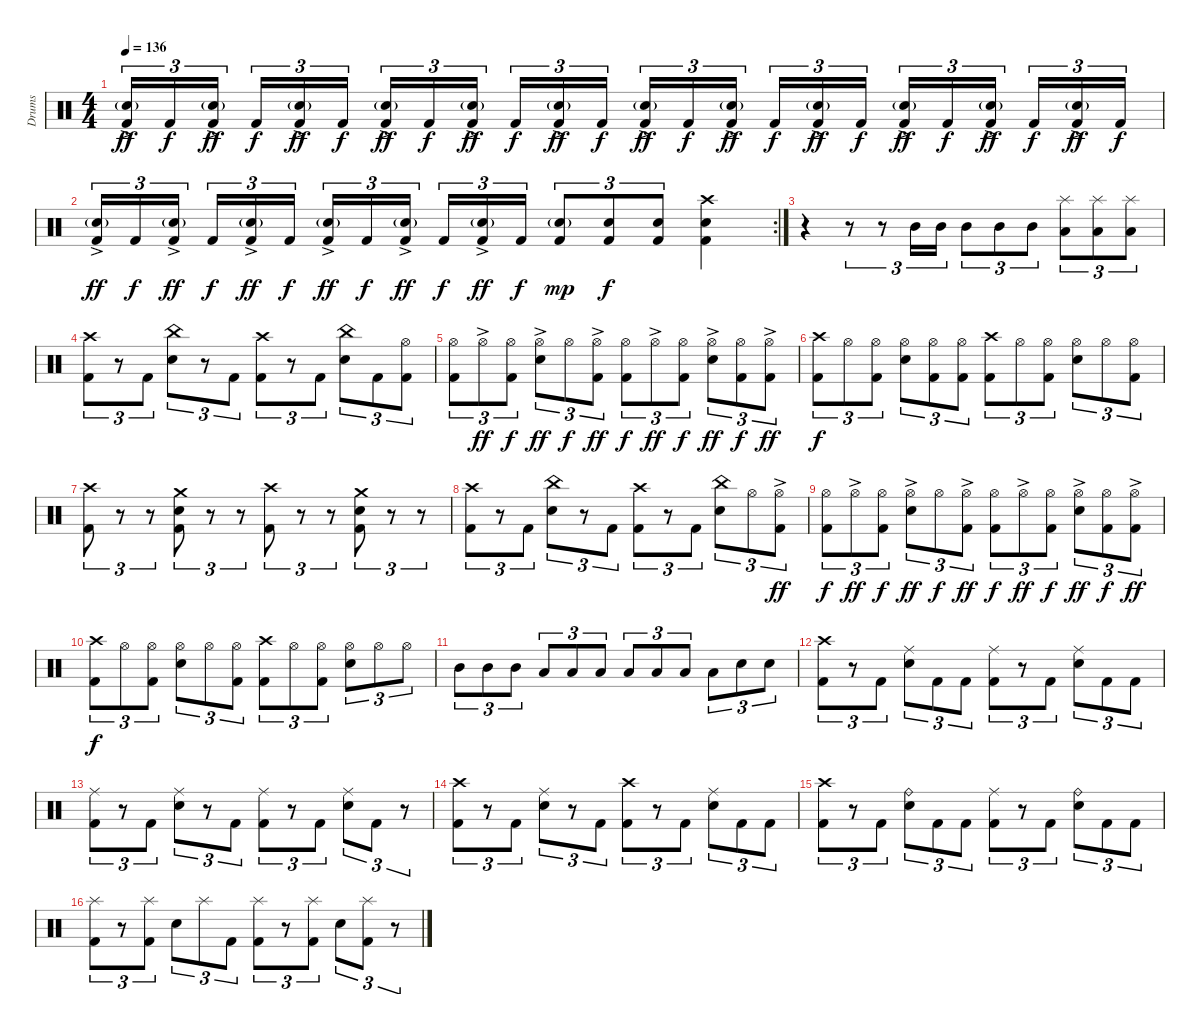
\track ("Drums" "Drums") {instrument percussion}
\staff {score}
\articulation defaults
\ts (4 4)
\tempo 136
\clef neutral
\ks c
("Electric Snare (hit)"{g} "Kick (hit) 2"{ac}).16{tu (3 2) dy ff} "Kick (hit) 2".16{tu (3 2) dy f} ("Electric Snare (hit)"{g} "Kick (hit) 2"{ac}).16{tu (3 2) dy ff beam splitsecondary} "Kick (hit) 2".16{tu (3 2) dy f} ("Electric Snare (hit)"{g} "Kick (hit) 2"{ac}).16{tu (3 2) dy ff} "Kick (hit) 2".16{tu (3 2) dy f} ("Electric Snare (hit)"{g} "Kick (hit) 2"{ac}).16{tu (3 2) dy ff} "Kick (hit) 2".16{tu (3 2) dy f} ("Electric Snare (hit)"{g} "Kick (hit) 2"{ac}).16{tu (3 2) dy ff beam splitsecondary} "Kick (hit) 2".16{tu (3 2) dy f} ("Electric Snare (hit)"{g} "Kick (hit) 2"{ac}).16{tu (3 2) dy ff} "Kick (hit) 2".16{tu (3 2) dy f} ("Electric Snare (hit)"{g} "Kick (hit) 2"{ac}).16{tu (3 2) dy ff} "Kick (hit) 2".16{tu (3 2) dy f} ("Electric Snare (hit)"{g} "Kick (hit) 2"{ac}).16{tu (3 2) dy ff beam splitsecondary} "Kick (hit) 2".16{tu (3 2) dy f} ("Electric Snare (hit)"{g} "Kick (hit) 2"{ac}).16{tu (3 2) dy ff} "Kick (hit) 2".16{tu (3 2) dy f} ("Electric Snare (hit)"{g} "Kick (hit) 2"{ac}).16{tu (3 2) dy ff} "Kick (hit) 2".16{tu (3 2) dy f} ("Electric Snare (hit)"{g} "Kick (hit) 2"{ac}).16{tu (3 2) dy ff beam splitsecondary} "Kick (hit) 2".16{tu (3 2) dy f} ("Electric Snare (hit)"{g} "Kick (hit) 2"{ac}).16{tu (3 2) dy ff} "Kick (hit) 2".16{tu (3 2) dy f} |
\rc 2
("Electric Snare (hit)"{g} "Kick (hit) 2"{ac}).16{tu (3 2) dy ff} "Kick (hit) 2".16{tu (3 2) dy f} ("Electric Snare (hit)"{g} "Kick (hit) 2"{ac}).16{tu (3 2) dy ff beam splitsecondary} "Kick (hit) 2".16{tu (3 2) dy f} ("Electric Snare (hit)"{g} "Kick (hit) 2"{ac}).16{tu (3 2) dy ff} "Kick (hit) 2".16{tu (3 2) dy f} ("Electric Snare (hit)"{g} "Kick (hit) 2"{ac}).16{tu (3 2) dy ff} "Kick (hit) 2".16{tu (3 2) dy f} ("Electric Snare (hit)"{g} "Kick (hit) 2"{ac}).16{tu (3 2) dy ff beam splitsecondary} "Kick (hit) 2".16{tu (3 2) dy f} ("Electric Snare (hit)"{g} "Kick (hit) 2"{ac}).16{tu (3 2) dy ff} "Kick (hit) 2".16{tu (3 2) dy f} ("Electric Snare (hit)"{g} "Kick (hit) 2").8{tu (3 2) dy mp} ("Electric Snare (hit)" "Kick (hit) 2").8{tu (3 2) dy f} ("Electric Snare (hit)" "Kick (hit) 2").8{tu (3 2)} ("Crash high (hit)" "Electric Snare (hit)" "Kick (hit) 2").4 |
r.4 r.8{tu (3 2)} r.8{tu (3 2)} "Mid Tom (hit)".16{tu (3 2)} "Mid Tom (hit)".16{tu (3 2)} "Mid Tom (hit)".8{tu (3 2)} "Mid Tom (hit)".8{tu (3 2)} "Mid Tom (hit)".8{tu (3 2)} ("Splash (hit)" "Low Tom (hit)").8{tu (3 2)} ("Splash (hit)" "Low Tom (hit)").8{tu (3 2)} ("Splash (hit)" "Low Tom (hit)").8{tu (3 2)} |
("Crash high (hit)" "Kick (hit) 2").8{tu (3 2)} r.8{tu (3 2)} "Kick (hit) 2".8{tu (3 2)} ("China (hit)" "Electric Snare (hit)").8{tu (3 2)} r.8{tu (3 2)} "Kick (hit) 2".8{tu (3 2)} ("Crash high (hit)" "Kick (hit) 2").8{tu (3 2)} r.8{tu (3 2)} "Kick (hit) 2".8{tu (3 2)} ("China (hit)" "Electric Snare (hit)").8{tu (3 2)} "Kick (hit) 2".8{tu (3 2)} ("Hi-Hat (open)" "Kick (hit) 2").8{tu (3 2)} |
("Hi-Hat (open)" "Kick (hit) 2").8{tu (3 2)} "Hi-Hat (open)"{ac}.8{tu (3 2) dy ff} ("Hi-Hat (open)" "Kick (hit) 2").8{tu (3 2) dy f} ("Hi-Hat (open)"{ac} "Electric Snare (hit)").8{tu (3 2) dy ff} "Hi-Hat (open)".8{tu (3 2) dy f} ("Hi-Hat (open)"{ac} "Kick (hit) 2").8{tu (3 2) dy ff} ("Hi-Hat (open)" "Kick (hit) 2").8{tu (3 2) dy f} "Hi-Hat (open)"{ac}.8{tu (3 2) dy ff} ("Hi-Hat (open)" "Kick (hit) 2").8{tu (3 2) dy f} ("Hi-Hat (open)"{ac} "Electric Snare (hit)").8{tu (3 2) dy ff} ("Hi-Hat (open)" "Kick (hit) 2").8{tu (3 2) dy f} ("Hi-Hat (open)"{ac} "Kick (hit) 2").8{tu (3 2) dy ff} |
("Crash high (hit)" "Kick (hit) 2").8{tu (3 2) dy f} "Hi-Hat (open)".8{tu (3 2)} ("Hi-Hat (open)" "Kick (hit) 2").8{tu (3 2)} ("Hi-Hat (open)" "Electric Snare (hit)").8{tu (3 2)} ("Hi-Hat (open)" "Kick (hit) 2").8{tu (3 2)} ("Hi-Hat (open)" "Kick (hit) 2").8{tu (3 2)} ("Crash high (hit)" "Kick (hit) 2").8{tu (3 2)} "Hi-Hat (open)".8{tu (3 2)} ("Hi-Hat (open)" "Kick (hit) 2").8{tu (3 2)} ("Hi-Hat (open)" "Electric Snare (hit)").8{tu (3 2)} "Hi-Hat (open)".8{tu (3 2)} ("Hi-Hat (open)" "Kick (hit) 2").8{tu (3 2)} |
("Crash high (hit)" "Kick (hit) 2").8{tu (3 2)} r.8{tu (3 2)} r.8{tu (3 2)} ("Crash medium (hit)" "Electric Snare (hit)" "Kick (hit) 2").8{tu (3 2)} r.8{tu (3 2)} r.8{tu (3 2)} ("Crash high (hit)" "Kick (hit) 2").8{tu (3 2)} r.8{tu (3 2)} r.8{tu (3 2)} ("Crash medium (hit)" "Electric Snare (hit)" "Kick (hit) 2").8{tu (3 2)} r.8{tu (3 2)} r.8{tu (3 2)} |
("Crash high (hit)" "Kick (hit) 2").8{tu (3 2)} r.8{tu (3 2)} "Kick (hit) 2".8{tu (3 2)} ("China (hit)" "Electric Snare (hit)").8{tu (3 2)} r.8{tu (3 2)} "Kick (hit) 2".8{tu (3 2)} ("Crash high (hit)" "Kick (hit) 2").8{tu (3 2)} r.8{tu (3 2)} "Kick (hit) 2".8{tu (3 2)} ("China (hit)" "Electric Snare (hit)").8{tu (3 2)} "Hi-Hat (open)".8{tu (3 2)} ("Hi-Hat (open)"{ac} "Kick (hit) 2").8{tu (3 2) dy ff} |
("Hi-Hat (open)" "Kick (hit) 2").8{tu (3 2) dy f} "Hi-Hat (open)"{ac}.8{tu (3 2) dy ff} ("Hi-Hat (open)" "Kick (hit) 2").8{tu (3 2) dy f} ("Hi-Hat (open)"{ac} "Electric Snare (hit)").8{tu (3 2) dy ff} "Hi-Hat (open)".8{tu (3 2) dy f} ("Hi-Hat (open)"{ac} "Kick (hit) 2").8{tu (3 2) dy ff} ("Hi-Hat (open)" "Kick (hit) 2").8{tu (3 2) dy f} "Hi-Hat (open)"{ac}.8{tu (3 2) dy ff} ("Hi-Hat (open)" "Kick (hit) 2").8{tu (3 2) dy f} ("Hi-Hat (open)"{ac} "Electric Snare (hit)").8{tu (3 2) dy ff} ("Hi-Hat (open)" "Kick (hit) 2").8{tu (3 2) dy f} ("Hi-Hat (open)"{ac} "Kick (hit) 2").8{tu (3 2) dy ff} |
("Crash high (hit)" "Kick (hit) 2").8{tu (3 2) dy f} "Hi-Hat (open)".8{tu (3 2)} ("Hi-Hat (open)" "Kick (hit) 2").8{tu (3 2)} ("Hi-Hat (open)" "Electric Snare (hit)").8{tu (3 2)} "Hi-Hat (open)".8{tu (3 2)} ("Hi-Hat (open)" "Kick (hit) 2").8{tu (3 2)} ("Crash high (hit)" "Kick (hit) 2").8{tu (3 2)} "Hi-Hat (open)".8{tu (3 2)} ("Hi-Hat (open)" "Kick (hit) 2").8{tu (3 2)} ("Hi-Hat (open)" "Electric Snare (hit)").8{tu (3 2)} "Hi-Hat (open)".8{tu (3 2)} "Hi-Hat (open)".8{tu (3 2)} |
"Mid Tom (hit)".8{tu (3 2)} "Mid Tom (hit)".8{tu (3 2)} "Mid Tom (hit)".8{tu (3 2)} "Low Tom (hit)".8{tu (3 2)} "Low Tom (hit)".8{tu (3 2)} "Low Tom (hit)".8{tu (3 2)} "Low Floor Tom (hit)".8{tu (3 2)} "Low Floor Tom (hit)".8{tu (3 2)} "Low Floor Tom (hit)".8{tu (3 2)} "Low Floor Tom (hit)".8{tu (3 2)} "Electric Snare (hit)".8{tu (3 2)} "Electric Snare (hit)".8{tu (3 2)} |
("Crash high (hit)" "Kick (hit) 2").8{tu (3 2)} r.8{tu (3 2)} "Kick (hit) 2".8{tu (3 2)} ("Ride (middle)" "Electric Snare (hit)").8{tu (3 2)} "Kick (hit) 2".8{tu (3 2)} "Kick (hit) 2".8{tu (3 2)} ("Ride (middle)" "Kick (hit) 2").8{tu (3 2)} r.8{tu (3 2)} "Kick (hit) 2".8{tu (3 2)} ("Ride (middle)" "Electric Snare (hit)").8{tu (3 2)} "Kick (hit) 2".8{tu (3 2)} "Kick (hit) 2".8{tu (3 2)} |
("Ride (middle)" "Kick (hit) 2").8{tu (3 2)} r.8{tu (3 2)} "Kick (hit) 2".8{tu (3 2)} ("Ride (middle)" "Electric Snare (hit)").8{tu (3 2)} r.8{tu (3 2)} "Kick (hit) 2".8{tu (3 2)} ("Ride (middle)" "Kick (hit) 2").8{tu (3 2)} r.8{tu (3 2)} "Kick (hit) 2".8{tu (3 2)} ("Ride (middle)" "Electric Snare (hit)").8{tu (3 2)} "Kick (hit) 2".8{tu (3 2)} r.8{tu (3 2)} |
("Crash high (hit)" "Kick (hit) 2").8{tu (3 2)} r.8{tu (3 2)} "Kick (hit) 2".8{tu (3 2)} ("Ride (middle)" "Electric Snare (hit)").8{tu (3 2)} r.8{tu (3 2)} "Kick (hit) 2".8{tu (3 2)} ("Crash high (hit)" "Kick (hit) 2").8{tu (3 2)} r.8{tu (3 2)} "Kick (hit) 2".8{tu (3 2)} ("Ride (middle)" "Electric Snare (hit)").8{tu (3 2)} "Kick (hit) 2".8{tu (3 2)} "Kick (hit) 2".8{tu (3 2)} |
("Crash high (hit)" "Kick (hit) 2").8{tu (3 2)} r.8{tu (3 2)} "Kick (hit) 2".8{tu (3 2)} ("Ride (bell)" "Electric Snare (hit)").8{tu (3 2)} "Kick (hit) 2".8{tu (3 2)} "Kick (hit) 2".8{tu (3 2)} ("Ride (middle)" "Kick (hit) 2").8{tu (3 2)} r.8{tu (3 2)} "Kick (hit) 2".8{tu (3 2)} ("Ride (bell)" "Electric Snare (hit)").8{tu (3 2)} "Kick (hit) 2".8{tu (3 2)} "Kick (hit) 2".8{tu (3 2)} |
("Splash (hit)" "Kick (hit) 2").8{tu (3 2)} r.8{tu (3 2)} ("Splash (hit)" "Kick (hit) 2").8{tu (3 2)} "Electric Snare (hit)".8{tu (3 2)} "Splash (hit)".8{tu (3 2)} "Kick (hit) 2".8{tu (3 2)} ("Splash (hit)" "Kick (hit) 2").8{tu (3 2)} r.8{tu (3 2)} ("Splash (hit)" "Kick (hit) 2").8{tu (3 2)} "Electric Snare (hit)".8{tu (3 2)} ("Splash (hit)" "Kick (hit) 2").8{tu (3 2)} r.8{tu (3 2)}
